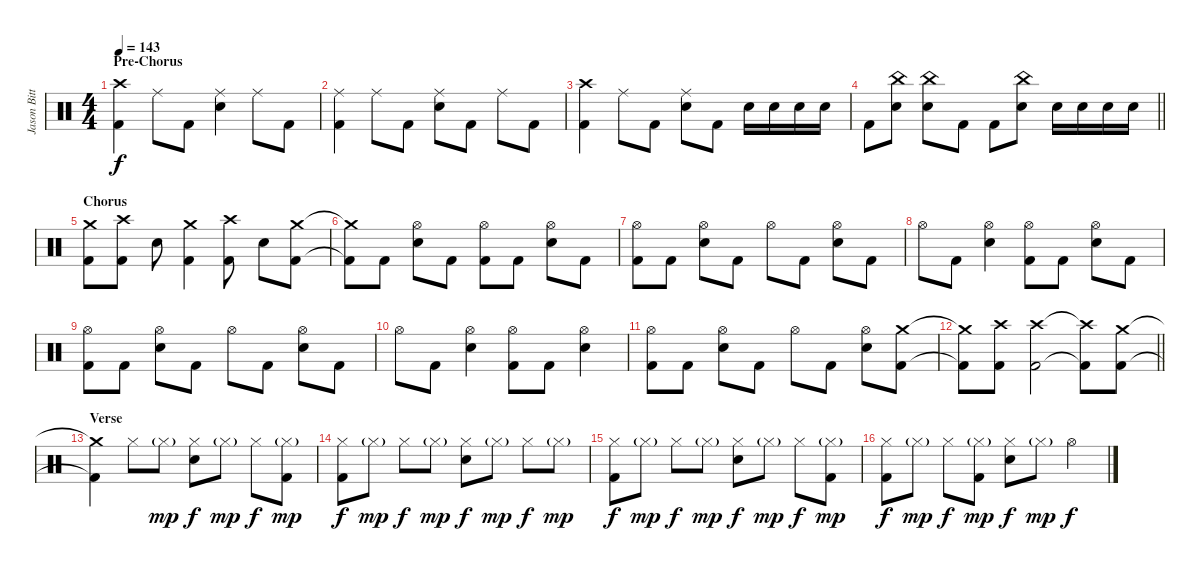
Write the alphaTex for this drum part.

\track ("Jason Bittner" "Jason Bitt") {instrument percussion}
\staff {score}
\articulation defaults
\ts (4 4)
\section ("" "Pre-Chorus")
\tempo 143
\clef neutral
\ks c
("Crash high (hit)" "Kick (hit) 2").4{dy f} "Ride (middle)".8 "Kick (hit) 2".8 ("Ride (middle)" "Electric Snare (hit)").4 "Ride (middle)".8 "Kick (hit) 2".8 |
("Ride (middle)" "Kick (hit) 2").4 "Ride (middle)".8 "Kick (hit) 2".8 ("Ride (middle)" "Electric Snare (hit)").8 "Kick (hit) 2".8 "Ride (middle)".8 "Kick (hit) 2".8 |
("Crash high (hit)" "Kick (hit) 2").4 "Ride (middle)".8 "Kick (hit) 2".8 ("Ride (middle)" "Electric Snare (hit)").8 "Kick (hit) 2".8 "Electric Snare (hit)".16 "Electric Snare (hit)".16 "Electric Snare (hit)".16 "Electric Snare (hit)".16 |
\barLineRight lightlight "Kick (hit) 2".8
("China (hit)" "Electric Snare (hit)").8 ("China (hit)" "Electric Snare (hit)").8 "Kick (hit) 2".8 "Kick (hit) 2".8 ("China (hit)" "Electric Snare (hit)").8 "Electric Snare (hit)".16 "Electric Snare (hit)".16 "Electric Snare (hit)".16 "Electric Snare (hit)".16 |
\section ("" "Chorus")
("Crash medium (hit)" "Kick (hit) 2").8 ("Crash high (hit)" "Kick (hit) 2").8 "Electric Snare (hit)".8 ("Crash medium (hit)" "Kick (hit) 2").4 ("Crash high (hit)" "Kick (hit) 2").8 "Electric Snare (hit)".8 ("Crash medium (hit)" "Kick (hit) 2").8 |
("Crash medium (hit)"{t} "Kick (hit) 2"{t}).8 "Kick (hit) 2".8 ("Hi-Hat (open)" "Electric Snare (hit)").8 "Kick (hit) 2".8 ("Hi-Hat (open)" "Kick (hit) 2").8 "Kick (hit) 2".8 ("Hi-Hat (open)" "Electric Snare (hit)").8 "Kick (hit) 2".8 |
("Hi-Hat (open)" "Kick (hit) 2").8 "Kick (hit) 2".8 ("Hi-Hat (open)" "Electric Snare (hit)").8 "Kick (hit) 2".8 "Hi-Hat (open)".8 "Kick (hit) 2".8 ("Hi-Hat (open)" "Electric Snare (hit)").8 "Kick (hit) 2".8 |
"Hi-Hat (open)".8 "Kick (hit) 2".8 ("Hi-Hat (open)" "Electric Snare (hit)").4 ("Hi-Hat (open)" "Kick (hit) 2").8 "Kick (hit) 2".8 ("Hi-Hat (open)" "Electric Snare (hit)").8 "Kick (hit) 2".8 |
("Hi-Hat (open)" "Kick (hit) 2").8 "Kick (hit) 2".8 ("Hi-Hat (open)" "Electric Snare (hit)").8 "Kick (hit) 2".8 "Hi-Hat (open)".8 "Kick (hit) 2".8 ("Hi-Hat (open)" "Electric Snare (hit)").8 "Kick (hit) 2".8 |
"Hi-Hat (open)".8 "Kick (hit) 2".8 ("Hi-Hat (open)" "Electric Snare (hit)").4 ("Hi-Hat (open)" "Kick (hit) 2").8 "Kick (hit) 2".8 ("Hi-Hat (open)" "Electric Snare (hit)").4 |
("Hi-Hat (open)" "Kick (hit) 2").8 "Kick (hit) 2".8 ("Hi-Hat (open)" "Electric Snare (hit)").8 "Kick (hit) 2".8 "Hi-Hat (open)".8 "Kick (hit) 2".8 ("Hi-Hat (open)" "Electric Snare (hit)").8 ("Crash medium (hit)" "Kick (hit) 2").8 |
\barLineRight lightlight
("Crash medium (hit)"{t} "Kick (hit) 2"{t}).8 ("Crash high (hit)" "Kick (hit) 2").8 ("Crash high (hit)" "Kick (hit) 2").2 ("Crash high (hit)"{t} "Kick (hit) 2"{t}).8 ("Crash medium (hit)" "Kick (hit) 2").8 |
\section ("" "Verse")
("Crash medium (hit)"{t} "Kick (hit) 2"{t}).4 "Hi-Hat (closed)".8 "Hi-Hat (closed)"{g}.8{dy mp} ("Hi-Hat (closed)" "Electric Snare (hit)").8{dy f} "Hi-Hat (closed)"{g}.8{dy mp} "Hi-Hat (closed)".8{dy f} ("Hi-Hat (closed)"{g} "Kick (hit) 2").8{dy mp} |
("Hi-Hat (closed)" "Kick (hit) 2").8{dy f} "Hi-Hat (closed)"{g}.8{dy mp} "Hi-Hat (closed)".8{dy f} "Hi-Hat (closed)"{g}.8{dy mp} ("Hi-Hat (closed)" "Electric Snare (hit)").8{dy f} "Hi-Hat (closed)"{g}.8{dy mp} "Hi-Hat (closed)".8{dy f} "Hi-Hat (closed)"{g}.8{dy mp} |
("Hi-Hat (closed)" "Kick (hit) 2").8{dy f} "Hi-Hat (closed)"{g}.8{dy mp} "Hi-Hat (closed)".8{dy f} "Hi-Hat (closed)"{g}.8{dy mp} ("Hi-Hat (closed)" "Electric Snare (hit)").8{dy f} "Hi-Hat (closed)"{g}.8{dy mp} "Hi-Hat (closed)".8{dy f} ("Hi-Hat (closed)"{g} "Kick (hit) 2").8{dy mp} |
("Hi-Hat (closed)" "Kick (hit) 2").8{dy f} "Hi-Hat (closed)"{g}.8{dy mp} "Hi-Hat (closed)".8{dy f} ("Hi-Hat (closed)"{g} "Kick (hit) 2").8{dy mp} ("Hi-Hat (closed)" "Electric Snare (hit)").8{dy f} "Hi-Hat (closed)"{g}.8{dy mp} "Hi-Hat (open)".4{dy f}
